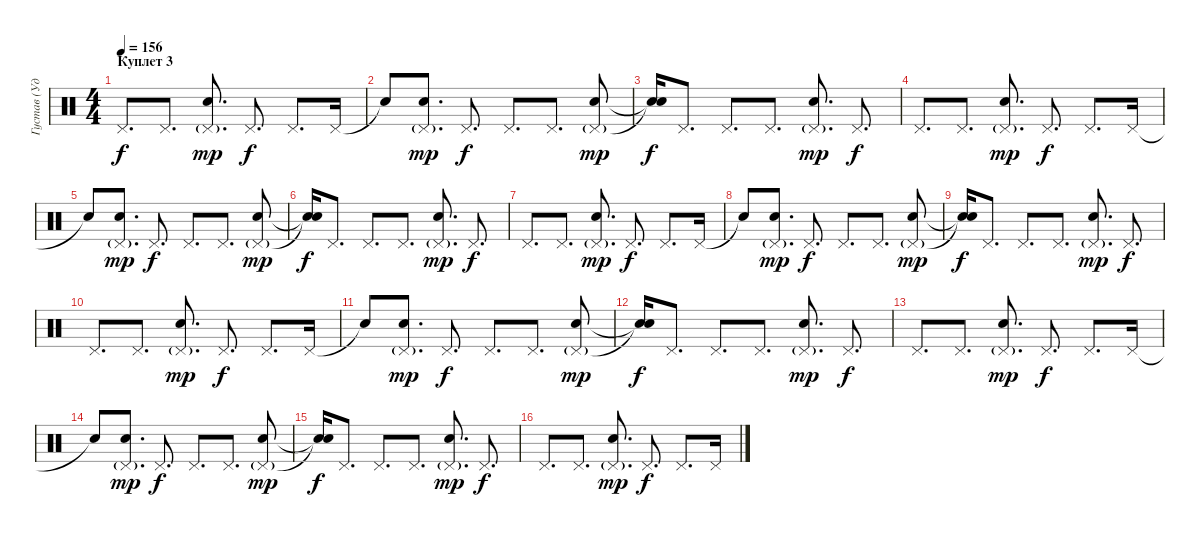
\track ("Густав (Ударные)" "Густав (Уд") {instrument percussion}
\staff {score}
\articulation defaults
\ts (4 4)
\section ("" "Куплет 3")
\tempo 156
\clef neutral
\ks c "Pedal Hi-Hat (hit)".8{d dy f} "Pedal Hi-Hat (hit)".8{d}
("Pedal Hi-Hat (hit)"{g} "Electric Snare (hit)").8{d dy mp} "Pedal Hi-Hat (hit)".8{d dy f} "Pedal Hi-Hat (hit)".8{d} "Pedal Hi-Hat (hit)".16 |
"Snare (hit)"{t}.8 ("Pedal Hi-Hat (hit)"{g} "Electric Snare (hit)").8{d dy mp} "Pedal Hi-Hat (hit)".8{d dy f} "Pedal Hi-Hat (hit)".8{d} "Pedal Hi-Hat (hit)".8{d} ("Pedal Hi-Hat (hit)"{g} "Electric Snare (hit)").8{dy mp} |
("Snare (hit)"{t} "Snare (hit)"{t}).16{dy f} "Pedal Hi-Hat (hit)".8{d} "Pedal Hi-Hat (hit)".8{d} "Pedal Hi-Hat (hit)".8{d} ("Pedal Hi-Hat (hit)"{g} "Electric Snare (hit)").8{d dy mp} "Pedal Hi-Hat (hit)".8{d dy f} |
"Pedal Hi-Hat (hit)".8{d} "Pedal Hi-Hat (hit)".8{d} ("Pedal Hi-Hat (hit)"{g} "Electric Snare (hit)").8{d dy mp} "Pedal Hi-Hat (hit)".8{d dy f} "Pedal Hi-Hat (hit)".8{d} "Pedal Hi-Hat (hit)".16 |
"Snare (hit)"{t}.8 ("Pedal Hi-Hat (hit)"{g} "Electric Snare (hit)").8{d dy mp} "Pedal Hi-Hat (hit)".8{d dy f} "Pedal Hi-Hat (hit)".8{d} "Pedal Hi-Hat (hit)".8{d} ("Pedal Hi-Hat (hit)"{g} "Electric Snare (hit)").8{dy mp} |
("Snare (hit)"{t} "Snare (hit)"{t}).16{dy f} "Pedal Hi-Hat (hit)".8{d} "Pedal Hi-Hat (hit)".8{d} "Pedal Hi-Hat (hit)".8{d} ("Pedal Hi-Hat (hit)"{g} "Electric Snare (hit)").8{d dy mp} "Pedal Hi-Hat (hit)".8{d dy f} |
"Pedal Hi-Hat (hit)".8{d} "Pedal Hi-Hat (hit)".8{d} ("Pedal Hi-Hat (hit)"{g} "Electric Snare (hit)").8{d dy mp} "Pedal Hi-Hat (hit)".8{d dy f} "Pedal Hi-Hat (hit)".8{d} "Pedal Hi-Hat (hit)".16 |
"Snare (hit)"{t}.8 ("Pedal Hi-Hat (hit)"{g} "Electric Snare (hit)").8{d dy mp} "Pedal Hi-Hat (hit)".8{d dy f} "Pedal Hi-Hat (hit)".8{d} "Pedal Hi-Hat (hit)".8{d} ("Pedal Hi-Hat (hit)"{g} "Electric Snare (hit)").8{dy mp} |
("Snare (hit)"{t} "Snare (hit)"{t}).16{dy f} "Pedal Hi-Hat (hit)".8{d} "Pedal Hi-Hat (hit)".8{d} "Pedal Hi-Hat (hit)".8{d} ("Pedal Hi-Hat (hit)"{g} "Electric Snare (hit)").8{d dy mp} "Pedal Hi-Hat (hit)".8{d dy f} |
"Pedal Hi-Hat (hit)".8{d} "Pedal Hi-Hat (hit)".8{d} ("Pedal Hi-Hat (hit)"{g} "Electric Snare (hit)").8{d dy mp} "Pedal Hi-Hat (hit)".8{d dy f} "Pedal Hi-Hat (hit)".8{d} "Pedal Hi-Hat (hit)".16 |
"Snare (hit)"{t}.8 ("Pedal Hi-Hat (hit)"{g} "Electric Snare (hit)").8{d dy mp} "Pedal Hi-Hat (hit)".8{d dy f} "Pedal Hi-Hat (hit)".8{d} "Pedal Hi-Hat (hit)".8{d} ("Pedal Hi-Hat (hit)"{g} "Electric Snare (hit)").8{dy mp} |
("Snare (hit)"{t} "Snare (hit)"{t}).16{dy f} "Pedal Hi-Hat (hit)".8{d} "Pedal Hi-Hat (hit)".8{d} "Pedal Hi-Hat (hit)".8{d} ("Pedal Hi-Hat (hit)"{g} "Electric Snare (hit)").8{d dy mp} "Pedal Hi-Hat (hit)".8{d dy f} |
"Pedal Hi-Hat (hit)".8{d} "Pedal Hi-Hat (hit)".8{d} ("Pedal Hi-Hat (hit)"{g} "Electric Snare (hit)").8{d dy mp} "Pedal Hi-Hat (hit)".8{d dy f} "Pedal Hi-Hat (hit)".8{d} "Pedal Hi-Hat (hit)".16 |
"Snare (hit)"{t}.8 ("Pedal Hi-Hat (hit)"{g} "Electric Snare (hit)").8{d dy mp} "Pedal Hi-Hat (hit)".8{d dy f} "Pedal Hi-Hat (hit)".8{d} "Pedal Hi-Hat (hit)".8{d} ("Pedal Hi-Hat (hit)"{g} "Electric Snare (hit)").8{dy mp} |
("Snare (hit)"{t} "Snare (hit)"{t}).16{dy f} "Pedal Hi-Hat (hit)".8{d} "Pedal Hi-Hat (hit)".8{d} "Pedal Hi-Hat (hit)".8{d} ("Pedal Hi-Hat (hit)"{g} "Electric Snare (hit)").8{d dy mp} "Pedal Hi-Hat (hit)".8{d dy f} |
"Pedal Hi-Hat (hit)".8{d} "Pedal Hi-Hat (hit)".8{d} ("Pedal Hi-Hat (hit)"{g} "Electric Snare (hit)").8{d dy mp} "Pedal Hi-Hat (hit)".8{d dy f} "Pedal Hi-Hat (hit)".8{d} "Pedal Hi-Hat (hit)".16
